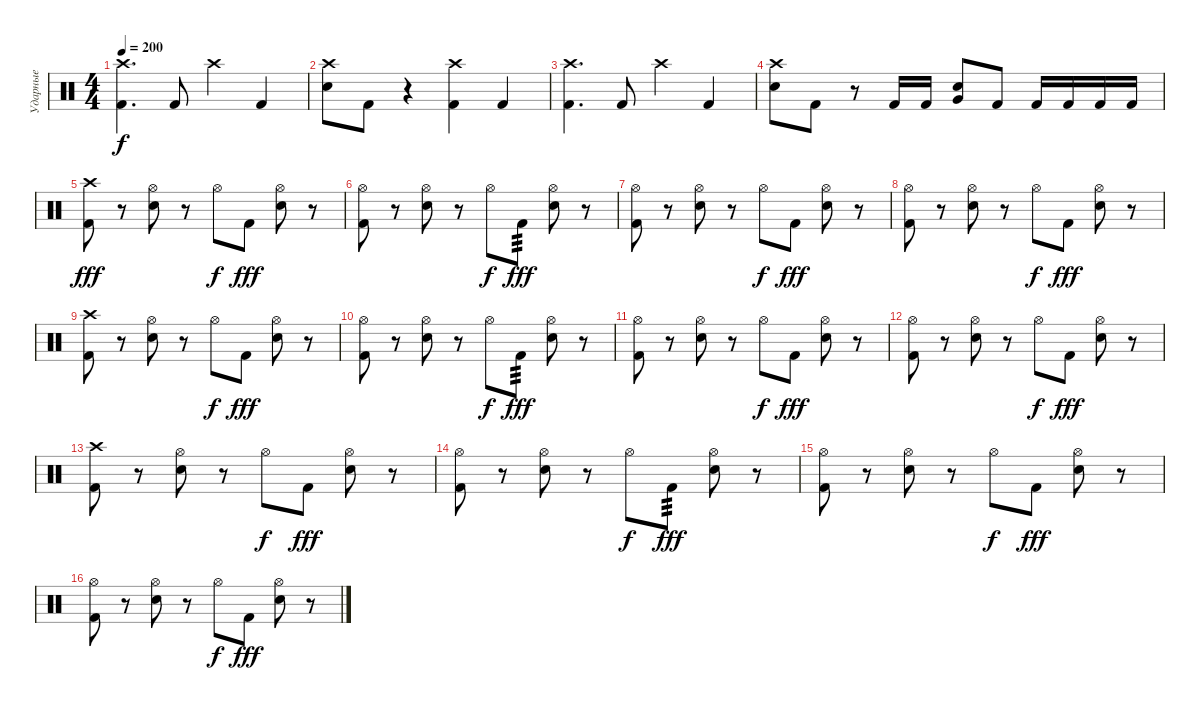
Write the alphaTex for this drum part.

\track ("Ударные" "Ударные") {instrument percussion}
\staff {score}
\articulation defaults
\ts (4 4)
\tempo 200
\clef neutral
\ks c
("Crash high (hit)" "Kick (hit) 2").4{d dy f} "Kick (hit) 2".8 "Crash high (hit)".4 "Kick (hit) 2".4 |
("Crash high (hit)" "Electric Snare (hit)").8 "Kick (hit) 2".8 r.4 ("Crash high (hit)" "Kick (hit) 2").4 "Kick (hit) 2".4 |
("Crash high (hit)" "Kick (hit) 2").4{d} "Kick (hit) 2".8 "Crash high (hit)".4 "Kick (hit) 2".4 |
("Crash high (hit)" "Electric Snare (hit)").8 "Kick (hit) 2".8 r.8 "Kick (hit) 2".16 "Kick (hit) 2".16 ("Very Low Tom (hit)" "Electric Snare (hit)").8 "Kick (hit) 2".8 "Kick (hit) 2".16 "Kick (hit) 2".16 "Kick (hit) 2".16 "Kick (hit) 2".16 |
("Crash high (hit)" "Kick (hit) 2").8{dy fff} r.8 ("Hi-Hat (open)" "Electric Snare (hit)").8 r.8 "Hi-Hat (open)".8{dy f} "Kick (hit) 2".8{dy fff} ("Hi-Hat (open)" "Electric Snare (hit)").8 r.8 |
("Hi-Hat (open)" "Kick (hit) 2").8 r.8 ("Hi-Hat (open)" "Electric Snare (hit)").8 r.8 "Hi-Hat (open)".8{dy f} "Kick (hit) 2".8{tp 3 dy fff} ("Hi-Hat (open)" "Electric Snare (hit)").8 r.8 |
("Hi-Hat (open)" "Kick (hit) 2").8 r.8 ("Hi-Hat (open)" "Electric Snare (hit)").8 r.8 "Hi-Hat (open)".8{dy f} "Kick (hit) 2".8{dy fff} ("Hi-Hat (open)" "Electric Snare (hit)").8 r.8 |
("Hi-Hat (open)" "Kick (hit) 2").8 r.8 ("Hi-Hat (open)" "Electric Snare (hit)").8 r.8 "Hi-Hat (open)".8{dy f} "Kick (hit) 2".8{dy fff} ("Hi-Hat (open)" "Electric Snare (hit)").8 r.8 |
("Crash high (hit)" "Kick (hit) 2").8 r.8 ("Hi-Hat (open)" "Electric Snare (hit)").8 r.8 "Hi-Hat (open)".8{dy f} "Kick (hit) 2".8{dy fff} ("Hi-Hat (open)" "Electric Snare (hit)").8 r.8 |
("Hi-Hat (open)" "Kick (hit) 2").8 r.8 ("Hi-Hat (open)" "Electric Snare (hit)").8 r.8 "Hi-Hat (open)".8{dy f} "Kick (hit) 2".8{tp 3 dy fff} ("Hi-Hat (open)" "Electric Snare (hit)").8 r.8 |
("Hi-Hat (open)" "Kick (hit) 2").8 r.8 ("Hi-Hat (open)" "Electric Snare (hit)").8 r.8 "Hi-Hat (open)".8{dy f} "Kick (hit) 2".8{dy fff} ("Hi-Hat (open)" "Electric Snare (hit)").8 r.8 |
("Hi-Hat (open)" "Kick (hit) 2").8 r.8 ("Hi-Hat (open)" "Electric Snare (hit)").8 r.8 "Hi-Hat (open)".8{dy f} "Kick (hit) 2".8{dy fff} ("Hi-Hat (open)" "Electric Snare (hit)").8 r.8 |
("Crash high (hit)" "Kick (hit) 2").8 r.8 ("Hi-Hat (open)" "Electric Snare (hit)").8 r.8 "Hi-Hat (open)".8{dy f} "Kick (hit) 2".8{dy fff} ("Hi-Hat (open)" "Electric Snare (hit)").8 r.8 |
("Hi-Hat (open)" "Kick (hit) 2").8 r.8 ("Hi-Hat (open)" "Electric Snare (hit)").8 r.8 "Hi-Hat (open)".8{dy f} "Kick (hit) 2".8{tp 3 dy fff} ("Hi-Hat (open)" "Electric Snare (hit)").8 r.8 |
("Hi-Hat (open)" "Kick (hit) 2").8 r.8 ("Hi-Hat (open)" "Electric Snare (hit)").8 r.8 "Hi-Hat (open)".8{dy f} "Kick (hit) 2".8{dy fff} ("Hi-Hat (open)" "Electric Snare (hit)").8 r.8 |
("Hi-Hat (open)" "Kick (hit) 2").8 r.8 ("Hi-Hat (open)" "Electric Snare (hit)").8 r.8 "Hi-Hat (open)".8{dy f} "Kick (hit) 2".8{dy fff} ("Hi-Hat (open)" "Electric Snare (hit)").8 r.8
